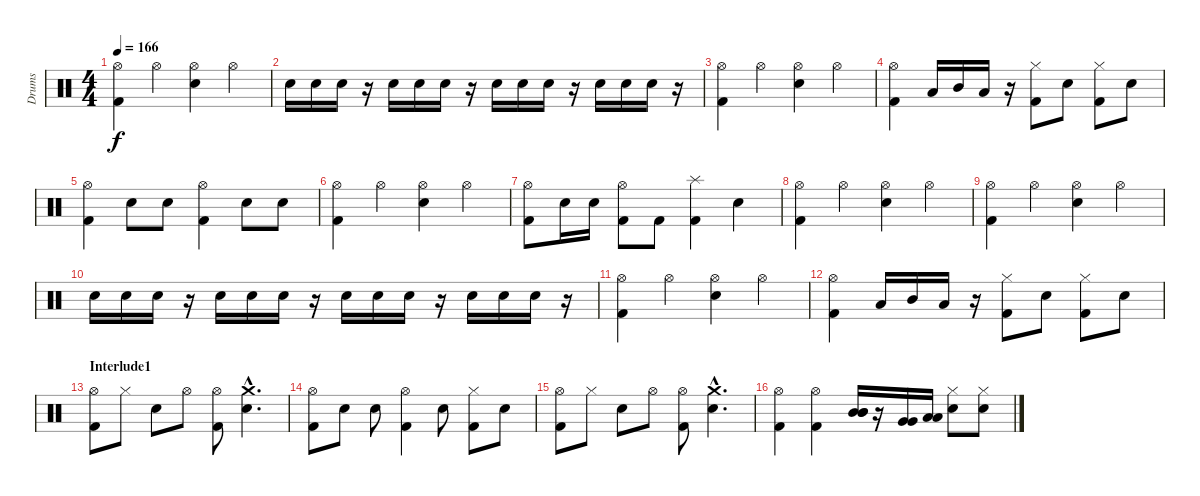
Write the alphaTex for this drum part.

\track ("Drums" "Drums") {instrument percussion}
\staff {score}
\articulation defaults
\ts (4 4)
\tempo 166
\clef neutral
\ks c
("Hi-Hat (open)" "Kick (hit) 2").4{dy f} "Hi-Hat (open)".4 ("Electric Snare (hit)" "Hi-Hat (open)").4 "Hi-Hat (open)".4 |
"Electric Snare (hit)".16 "Electric Snare (hit)".16 "Electric Snare (hit)".16 r.16 "Snare (hit) 2".16 "Snare (hit) 2".16 "Snare (hit) 2".16 r.16 "Snare (hit) 2".16 "Snare (hit) 2".16 "Snare (hit) 2".16 r.16 "Electric Snare (hit)".16 "Electric Snare (hit)".16 "Electric Snare (hit)".16 r.16 |
("Hi-Hat (open)" "Kick (hit) 2").4 "Hi-Hat (open)".4 ("Electric Snare (hit)" "Hi-Hat (open)").4 "Hi-Hat (open)".4 |
("Hi-Hat (open)" "Kick (hit) 2").4 "Low Tom (hit)".16 "Mid Tom (hit)".16 "Low Tom (hit)".16 r.16 ("Hi-Hat (closed)" "Kick (hit) 2").8 "Electric Snare (hit)".8 ("Hi-Hat (closed)" "Kick (hit) 2").8 "Electric Snare (hit)".8 |
("Hi-Hat (open)" "Kick (hit) 2").4 "Snare (hit) 2".8 "Electric Snare (hit)".8 ("Hi-Hat (open)" "Kick (hit) 2").4 "Electric Snare (hit)".8 "Snare (hit) 2".8 |
("Hi-Hat (open)" "Kick (hit) 2").4 "Hi-Hat (open)".4 ("Hi-Hat (open)" "Electric Snare (hit)").4 "Hi-Hat (open)".4 |
("Hi-Hat (open)" "Kick (hit) 2").8 "Snare (hit) 2".16 "Electric Snare (hit)".16 ("Hi-Hat (open)" "Kick (hit) 2").8 "Kick (hit) 2".8 ("Splash (hit)" "Kick (hit) 2").4 "Electric Snare (hit)".4 |
("Hi-Hat (open)" "Kick (hit) 2").4 "Hi-Hat (open)".4 ("Electric Snare (hit)" "Hi-Hat (open)").4 "Hi-Hat (open)".4 |
("Hi-Hat (open)" "Kick (hit) 2").4 "Hi-Hat (open)".4 ("Electric Snare (hit)" "Hi-Hat (open)").4 "Hi-Hat (open)".4 |
"Electric Snare (hit)".16 "Electric Snare (hit)".16 "Electric Snare (hit)".16 r.16 "Snare (hit) 2".16 "Snare (hit) 2".16 "Snare (hit) 2".16 r.16 "Snare (hit) 2".16 "Snare (hit) 2".16 "Snare (hit) 2".16 r.16 "Electric Snare (hit)".16 "Electric Snare (hit)".16 "Electric Snare (hit)".16 r.16 |
("Hi-Hat (open)" "Kick (hit) 2").4 "Hi-Hat (open)".4 ("Electric Snare (hit)" "Hi-Hat (open)").4 "Hi-Hat (open)".4 |
("Hi-Hat (open)" "Kick (hit) 2").4 "Low Tom (hit)".16 "Mid Tom (hit)".16 "Low Tom (hit)".16 r.16 ("Hi-Hat (closed)" "Kick (hit) 2").8 "Electric Snare (hit)".8 ("Hi-Hat (closed)" "Kick (hit) 2").8 "Electric Snare (hit)".8 |
\section ("" "Interlude1")
("Hi-Hat (open)" "Kick (hit) 2").8 "Hi-Hat (closed)".8 "Electric Snare (hit)".8 "Hi-Hat (open)".8 ("Hi-Hat (open)" "Kick (hit) 2").8 ("Crash medium (hit)"{hac} "Electric Snare (hit)"{hac}).4{d} |
("Hi-Hat (open)" "Kick (hit) 2").8 "Electric Snare (hit)".8 "Electric Snare (hit)".8 ("Hi-Hat (open)" "Kick (hit) 2").4 "Electric Snare (hit)".8 ("Hi-Hat (closed)" "Kick (hit) 2").8 "Electric Snare (hit)".8 |
("Hi-Hat (open)" "Kick (hit) 2").8 "Hi-Hat (closed)".8 "Electric Snare (hit)".8 "Hi-Hat (open)".8 ("Hi-Hat (open)" "Kick (hit) 2").8 ("Crash medium (hit)"{hac} "Electric Snare (hit)"{hac}).4{d} |
("Hi-Hat (open)" "Kick (hit) 2").4 ("Hi-Hat (open)" "Kick (hit) 2").4 ("Mid Tom (hit)" "Mid Tom (hit)" "Mid Tom (hit)").16 r.16 ("Very Low Tom (hit)" "Very Low Tom (hit)").16 ("Low Tom (hit)" "Low Tom (hit)").16 ("Hi-Hat (closed)" "Snare (hit) 2").8 ("Hi-Hat (closed)" "Snare (hit) 2").8
